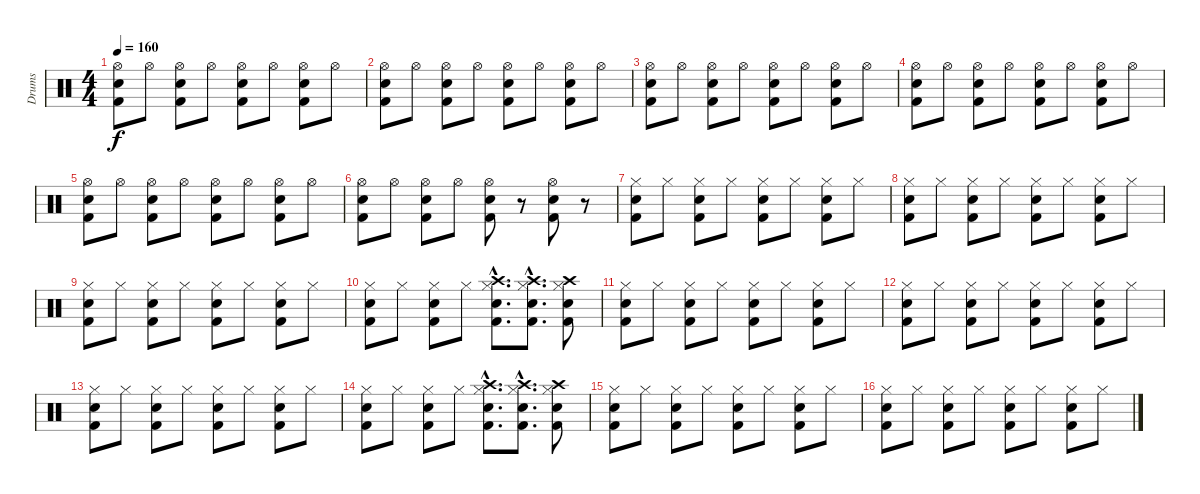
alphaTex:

\track ("Drums" "Drums") {instrument percussion}
\staff {score}
\articulation defaults
\ts (4 4)
\tempo 160
\clef neutral
\ks c
("Hi-Hat (open)" "Kick (hit) 2" "Electric Snare (hit)").8{dy f} "Hi-Hat (open)".8 ("Hi-Hat (open)" "Kick (hit) 2" "Electric Snare (hit)").8 "Hi-Hat (open)".8 ("Hi-Hat (open)" "Kick (hit) 2" "Electric Snare (hit)").8 "Hi-Hat (open)".8 ("Hi-Hat (open)" "Kick (hit) 2" "Electric Snare (hit)").8 "Hi-Hat (open)".8 |
("Hi-Hat (open)" "Kick (hit) 2" "Electric Snare (hit)").8 "Hi-Hat (open)".8 ("Hi-Hat (open)" "Kick (hit) 2" "Electric Snare (hit)").8 "Hi-Hat (open)".8 ("Hi-Hat (open)" "Kick (hit) 2" "Electric Snare (hit)").8 "Hi-Hat (open)".8 ("Hi-Hat (open)" "Kick (hit) 2" "Electric Snare (hit)").8 "Hi-Hat (open)".8 |
("Hi-Hat (open)" "Kick (hit) 2" "Electric Snare (hit)").8 "Hi-Hat (open)".8 ("Hi-Hat (open)" "Kick (hit) 2" "Electric Snare (hit)").8 "Hi-Hat (open)".8 ("Hi-Hat (open)" "Kick (hit) 2" "Electric Snare (hit)").8 "Hi-Hat (open)".8 ("Hi-Hat (open)" "Kick (hit) 2" "Electric Snare (hit)").8 "Hi-Hat (open)".8 |
("Hi-Hat (open)" "Kick (hit) 2" "Electric Snare (hit)").8 "Hi-Hat (open)".8 ("Hi-Hat (open)" "Kick (hit) 2" "Electric Snare (hit)").8 "Hi-Hat (open)".8 ("Hi-Hat (open)" "Kick (hit) 2" "Electric Snare (hit)").8 "Hi-Hat (open)".8 ("Hi-Hat (open)" "Kick (hit) 2" "Electric Snare (hit)").8 "Hi-Hat (open)".8 |
("Hi-Hat (open)" "Kick (hit) 2" "Electric Snare (hit)").8 "Hi-Hat (open)".8 ("Hi-Hat (open)" "Kick (hit) 2" "Electric Snare (hit)").8 "Hi-Hat (open)".8 ("Hi-Hat (open)" "Kick (hit) 2" "Electric Snare (hit)").8 "Hi-Hat (open)".8 ("Hi-Hat (open)" "Kick (hit) 2" "Electric Snare (hit)").8 "Hi-Hat (open)".8 |
("Hi-Hat (open)" "Kick (hit) 2" "Electric Snare (hit)").8 "Hi-Hat (open)".8 ("Hi-Hat (open)" "Kick (hit) 2" "Electric Snare (hit)").8 "Hi-Hat (open)".8 ("Hi-Hat (open)" "Kick (hit) 2" "Electric Snare (hit)").8 r.8 ("Hi-Hat (open)" "Kick (hit) 2" "Electric Snare (hit)").8 r.8 |
("Hi-Hat (closed)" "Kick (hit) 2" "Electric Snare (hit)").8 "Hi-Hat (closed)".8 ("Hi-Hat (closed)" "Kick (hit) 2" "Electric Snare (hit)").8 "Hi-Hat (closed)".8 ("Hi-Hat (closed)" "Kick (hit) 2" "Electric Snare (hit)").8 "Hi-Hat (closed)".8 ("Hi-Hat (closed)" "Kick (hit) 2" "Electric Snare (hit)").8 "Hi-Hat (closed)".8 |
("Hi-Hat (closed)" "Kick (hit) 2" "Electric Snare (hit)").8 "Hi-Hat (closed)".8 ("Hi-Hat (closed)" "Kick (hit) 2" "Electric Snare (hit)").8 "Hi-Hat (closed)".8 ("Hi-Hat (closed)" "Kick (hit) 2" "Electric Snare (hit)").8 "Hi-Hat (closed)".8 ("Hi-Hat (closed)" "Kick (hit) 2" "Electric Snare (hit)").8 "Hi-Hat (closed)".8 |
("Hi-Hat (closed)" "Kick (hit) 2" "Electric Snare (hit)").8 "Hi-Hat (closed)".8 ("Hi-Hat (closed)" "Kick (hit) 2" "Electric Snare (hit)").8 "Hi-Hat (closed)".8 ("Hi-Hat (closed)" "Kick (hit) 2" "Electric Snare (hit)").8 "Hi-Hat (closed)".8 ("Hi-Hat (closed)" "Kick (hit) 2" "Electric Snare (hit)").8 "Hi-Hat (closed)".8 |
("Hi-Hat (closed)" "Kick (hit) 2" "Electric Snare (hit)").8 "Hi-Hat (closed)".8 ("Hi-Hat (closed)" "Kick (hit) 2" "Electric Snare (hit)").8 "Hi-Hat (closed)".8 ("Hi-Hat (closed)"{hac} "Kick (hit) 2"{hac} "Electric Snare (hit)"{hac} "Crash high (hit)"{hac}).8{d} ("Hi-Hat (closed)"{hac} "Kick (hit) 2"{hac} "Electric Snare (hit)"{hac} "Crash high (hit)"{hac}).8{d} ("Kick (hit) 2" "Hi-Hat (closed)" "Electric Snare (hit)" "Crash high (hit)").8 |
("Hi-Hat (closed)" "Kick (hit) 2" "Electric Snare (hit)").8 "Hi-Hat (closed)".8 ("Hi-Hat (closed)" "Kick (hit) 2" "Electric Snare (hit)").8 "Hi-Hat (closed)".8 ("Hi-Hat (closed)" "Kick (hit) 2" "Electric Snare (hit)").8 "Hi-Hat (closed)".8 ("Hi-Hat (closed)" "Kick (hit) 2" "Electric Snare (hit)").8 "Hi-Hat (closed)".8 |
("Hi-Hat (closed)" "Kick (hit) 2" "Electric Snare (hit)").8 "Hi-Hat (closed)".8 ("Hi-Hat (closed)" "Kick (hit) 2" "Electric Snare (hit)").8 "Hi-Hat (closed)".8 ("Hi-Hat (closed)" "Kick (hit) 2" "Electric Snare (hit)").8 "Hi-Hat (closed)".8 ("Hi-Hat (closed)" "Kick (hit) 2" "Electric Snare (hit)").8 "Hi-Hat (closed)".8 |
("Hi-Hat (closed)" "Kick (hit) 2" "Electric Snare (hit)").8 "Hi-Hat (closed)".8 ("Hi-Hat (closed)" "Kick (hit) 2" "Electric Snare (hit)").8 "Hi-Hat (closed)".8 ("Hi-Hat (closed)" "Kick (hit) 2" "Electric Snare (hit)").8 "Hi-Hat (closed)".8 ("Hi-Hat (closed)" "Kick (hit) 2" "Electric Snare (hit)").8 "Hi-Hat (closed)".8 |
("Hi-Hat (closed)" "Kick (hit) 2" "Electric Snare (hit)").8 "Hi-Hat (closed)".8 ("Hi-Hat (closed)" "Kick (hit) 2" "Electric Snare (hit)").8 "Hi-Hat (closed)".8 ("Hi-Hat (closed)"{hac} "Kick (hit) 2"{hac} "Electric Snare (hit)"{hac} "Crash high (hit)"{hac}).8{d} ("Hi-Hat (closed)"{hac} "Kick (hit) 2"{hac} "Electric Snare (hit)"{hac} "Crash high (hit)"{hac}).8{d} ("Kick (hit) 2" "Hi-Hat (closed)" "Electric Snare (hit)" "Crash high (hit)").8 |
("Hi-Hat (closed)" "Kick (hit) 2" "Electric Snare (hit)").8 "Hi-Hat (closed)".8 ("Hi-Hat (closed)" "Kick (hit) 2" "Electric Snare (hit)").8 "Hi-Hat (closed)".8 ("Hi-Hat (closed)" "Kick (hit) 2" "Electric Snare (hit)").8 "Hi-Hat (closed)".8 ("Hi-Hat (closed)" "Kick (hit) 2" "Electric Snare (hit)").8 "Hi-Hat (closed)".8 |
("Hi-Hat (closed)" "Kick (hit) 2" "Electric Snare (hit)").8 "Hi-Hat (closed)".8 ("Hi-Hat (closed)" "Kick (hit) 2" "Electric Snare (hit)").8 "Hi-Hat (closed)".8 ("Hi-Hat (closed)" "Kick (hit) 2" "Electric Snare (hit)").8 "Hi-Hat (closed)".8 ("Hi-Hat (closed)" "Kick (hit) 2" "Electric Snare (hit)").8 "Hi-Hat (closed)".8
